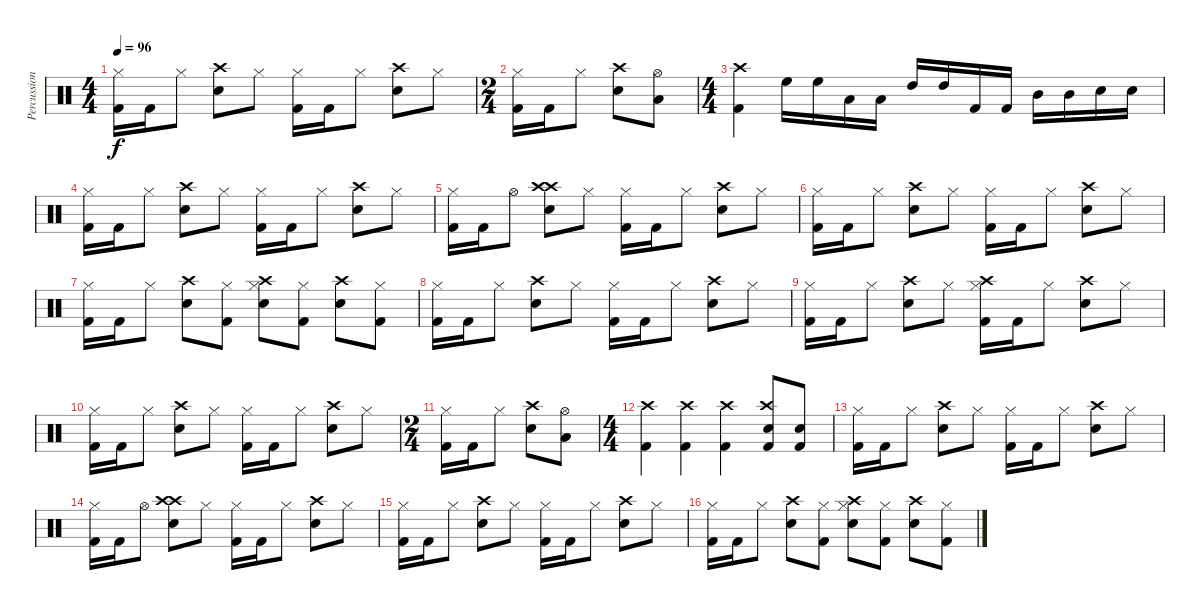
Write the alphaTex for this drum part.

\track ("Percussion" "Percussion") {instrument percussion}
\staff {score}
\articulation defaults
\ts (4 4)
\tempo 96
\clef neutral
\ks c
("Hi-Hat (closed)" "Kick (hit) 2").16{dy f} "Kick (hit) 2".16 "Hi-Hat (closed)".8 ("Crash high (hit)" "Snare (hit) 2").8 "Hi-Hat (closed)".8 ("Hi-Hat (closed)" "Kick (hit) 2").16 "Kick (hit) 2".16 "Hi-Hat (closed)".8 ("Crash high (hit)" "Snare (hit) 2").8 "Hi-Hat (closed)".8 |
\ts (2 4)
("Hi-Hat (closed)" "Kick (hit) 2").16 "Kick (hit) 2".16 "Hi-Hat (closed)".8 ("Crash high (hit)" "Snare (hit) 2").8 ("Hi-Hat (open)" "Low Floor Tom (hit)").8 |
\ts (4 4)
("Crash high (hit)" "Kick (hit) 2").4 "High Floor Tom (hit)".16 "High Floor Tom (hit)".16 "Low Floor Tom (hit)".16 "Low Floor Tom (hit)".16 "High Tom (hit)".16 "High Tom (hit)".16 "Kick (hit) 2".16 "Kick (hit) 2".16 "Mid Tom (hit)".16 "Mid Tom (hit)".16 "Snare (hit) 2".16 "Snare (hit) 2".16 |
("Hi-Hat (closed)" "Kick (hit) 2").16 "Kick (hit) 2".16 "Hi-Hat (closed)".8 ("Crash high (hit)" "Snare (hit) 2").8 "Hi-Hat (closed)".8 ("Hi-Hat (closed)" "Kick (hit) 2").16 "Kick (hit) 2".16 "Hi-Hat (closed)".8 ("Crash high (hit)" "Snare (hit) 2").8 "Hi-Hat (closed)".8 |
("Hi-Hat (closed)" "Kick (hit) 2").16 "Kick (hit) 2".16 "Hi-Hat (open)".8 ("Crash high (hit)" "Crash high (hit)" "Snare (hit) 2").8 "Hi-Hat (closed)".8 ("Hi-Hat (closed)" "Kick (hit) 2").16 "Kick (hit) 2".16 "Hi-Hat (closed)".8 ("Crash high (hit)" "Snare (hit) 2").8 "Hi-Hat (closed)".8 |
("Hi-Hat (closed)" "Kick (hit) 2").16 "Kick (hit) 2".16 "Hi-Hat (closed)".8 ("Crash high (hit)" "Snare (hit) 2").8 "Hi-Hat (closed)".8 ("Hi-Hat (closed)" "Kick (hit) 2").16 "Kick (hit) 2".16 "Hi-Hat (closed)".8 ("Crash high (hit)" "Snare (hit) 2").8 "Hi-Hat (closed)".8 |
("Hi-Hat (closed)" "Kick (hit) 2").16 "Kick (hit) 2".16 "Hi-Hat (closed)".8 ("Crash high (hit)" "Snare (hit) 2").8 ("Hi-Hat (closed)" "Kick (hit) 2").8 ("Hi-Hat (closed)" "Crash high (hit)" "Snare (hit) 2").8 ("Hi-Hat (closed)" "Kick (hit) 2").8 ("Crash high (hit)" "Snare (hit) 2").8 ("Hi-Hat (closed)" "Kick (hit) 2").8 |
("Hi-Hat (closed)" "Kick (hit) 2").16 "Kick (hit) 2".16 "Hi-Hat (closed)".8 ("Crash high (hit)" "Snare (hit) 2").8 "Hi-Hat (closed)".8 ("Hi-Hat (closed)" "Kick (hit) 2").16 "Kick (hit) 2".16 "Hi-Hat (closed)".8 ("Crash high (hit)" "Snare (hit) 2").8 "Hi-Hat (closed)".8 |
("Hi-Hat (closed)" "Kick (hit) 2").16 "Kick (hit) 2".16 "Hi-Hat (closed)".8 ("Crash high (hit)" "Snare (hit) 2").8 "Hi-Hat (closed)".8 ("Hi-Hat (closed)" "Crash high (hit)" "Kick (hit) 2").16 "Kick (hit) 2".16 "Hi-Hat (closed)".8 ("Crash high (hit)" "Snare (hit) 2").8 "Hi-Hat (closed)".8 |
("Hi-Hat (closed)" "Kick (hit) 2").16 "Kick (hit) 2".16 "Hi-Hat (closed)".8 ("Crash high (hit)" "Snare (hit) 2").8 "Hi-Hat (closed)".8 ("Hi-Hat (closed)" "Kick (hit) 2").16 "Kick (hit) 2".16 "Hi-Hat (closed)".8 ("Crash high (hit)" "Snare (hit) 2").8 "Hi-Hat (closed)".8 |
\ts (2 4)
("Hi-Hat (closed)" "Kick (hit) 2").16 "Kick (hit) 2".16 "Hi-Hat (closed)".8 ("Crash high (hit)" "Snare (hit) 2").8 ("Hi-Hat (open)" "Low Floor Tom (hit)").8 |
\ts (4 4)
("Crash high (hit)" "Kick (hit) 2").4 ("Crash high (hit)" "Kick (hit) 2").4 ("Crash high (hit)" "Kick (hit) 2").4 ("Crash high (hit)" "Kick (hit) 2" "Snare (hit) 2").8 ("Kick (hit) 2" "Snare (hit) 2").8 |
("Hi-Hat (closed)" "Kick (hit) 2").16 "Kick (hit) 2".16 "Hi-Hat (closed)".8 ("Crash high (hit)" "Snare (hit) 2").8 "Hi-Hat (closed)".8 ("Hi-Hat (closed)" "Kick (hit) 2").16 "Kick (hit) 2".16 "Hi-Hat (closed)".8 ("Crash high (hit)" "Snare (hit) 2").8 "Hi-Hat (closed)".8 |
("Hi-Hat (closed)" "Kick (hit) 2").16 "Kick (hit) 2".16 "Hi-Hat (open)".8 ("Crash high (hit)" "Crash high (hit)" "Snare (hit) 2").8 "Hi-Hat (closed)".8 ("Hi-Hat (closed)" "Kick (hit) 2").16 "Kick (hit) 2".16 "Hi-Hat (closed)".8 ("Crash high (hit)" "Snare (hit) 2").8 "Hi-Hat (closed)".8 |
("Hi-Hat (closed)" "Kick (hit) 2").16 "Kick (hit) 2".16 "Hi-Hat (closed)".8 ("Crash high (hit)" "Snare (hit) 2").8 "Hi-Hat (closed)".8 ("Hi-Hat (closed)" "Kick (hit) 2").16 "Kick (hit) 2".16 "Hi-Hat (closed)".8 ("Crash high (hit)" "Snare (hit) 2").8 "Hi-Hat (closed)".8 |
("Hi-Hat (closed)" "Kick (hit) 2").16 "Kick (hit) 2".16 "Hi-Hat (closed)".8 ("Crash high (hit)" "Snare (hit) 2").8 ("Hi-Hat (closed)" "Kick (hit) 2").8 ("Hi-Hat (closed)" "Crash high (hit)" "Snare (hit) 2").8 ("Hi-Hat (closed)" "Kick (hit) 2").8 ("Crash high (hit)" "Snare (hit) 2").8 ("Hi-Hat (closed)" "Kick (hit) 2").8
